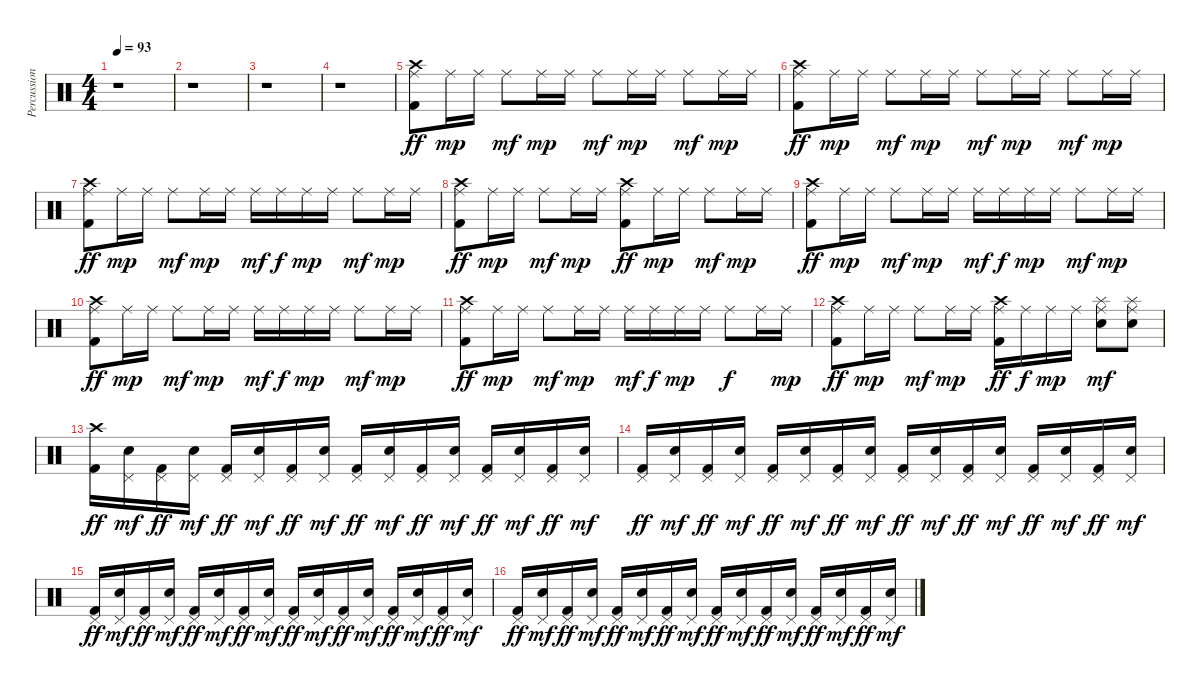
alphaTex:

\track ("Percussion" "Percussion") {instrument percussion}
\staff {score}
\articulation defaults
\ts (4 4)
\tempo 93
\clef neutral
\ks c
r.1{dy ff} |
r.1 |
r.1 |
r.1 |
\section ("" "")
("Crash high (hit)" "Ride (middle)" "Kick (hit) 2").8 "Ride (middle)".16{dy mp} "Ride (middle)".16 "Ride (middle)".8{dy mf} "Ride (middle)".16{dy mp} "Ride (middle)".16 "Ride (middle)".8{dy mf} "Ride (middle)".16{dy mp} "Ride (middle)".16 "Ride (middle)".8{dy mf} "Ride (middle)".16{dy mp} "Ride (middle)".16 |
("Crash high (hit)" "Ride (middle)" "Kick (hit) 2").8{dy ff} "Ride (middle)".16{dy mp} "Ride (middle)".16 "Ride (middle)".8{dy mf} "Ride (middle)".16{dy mp} "Ride (middle)".16 "Ride (middle)".8{dy mf} "Ride (middle)".16{dy mp} "Ride (middle)".16 "Ride (middle)".8{dy mf} "Ride (middle)".16{dy mp} "Ride (middle)".16 |
("Crash high (hit)" "Ride (middle)" "Kick (hit) 2").8{dy ff} "Ride (middle)".16{dy mp} "Ride (middle)".16 "Ride (middle)".8{dy mf} "Ride (middle)".16{dy mp} "Ride (middle)".16 "Ride (middle)".16{dy mf} "Ride (middle)".16{dy f} "Ride (middle)".16{dy mp} "Ride (middle)".16 "Ride (middle)".8{dy mf} "Ride (middle)".16{dy mp} "Ride (middle)".16 |
("Crash high (hit)" "Ride (middle)" "Kick (hit) 2").8{dy ff} "Ride (middle)".16{dy mp} "Ride (middle)".16 "Ride (middle)".8{dy mf} "Ride (middle)".16{dy mp} "Ride (middle)".16 ("Crash high (hit)" "Ride (middle)" "Kick (hit) 2").8{dy ff} "Ride (middle)".16{dy mp} "Ride (middle)".16 "Ride (middle)".8{dy mf} "Ride (middle)".16{dy mp} "Ride (middle)".16 |
("Crash high (hit)" "Ride (middle)" "Kick (hit) 2").8{dy ff} "Ride (middle)".16{dy mp} "Ride (middle)".16 "Ride (middle)".8{dy mf} "Ride (middle)".16{dy mp} "Ride (middle)".16 "Ride (middle)".16{dy mf} "Ride (middle)".16{dy f} "Ride (middle)".16{dy mp} "Ride (middle)".16 "Ride (middle)".8{dy mf} "Ride (middle)".16{dy mp} "Ride (middle)".16 |
("Crash high (hit)" "Ride (middle)" "Kick (hit) 2").8{dy ff} "Ride (middle)".16{dy mp} "Ride (middle)".16 "Ride (middle)".8{dy mf} "Ride (middle)".16{dy mp} "Ride (middle)".16 "Ride (middle)".16{dy mf} "Ride (middle)".16{dy f} "Ride (middle)".16{dy mp} "Ride (middle)".16 "Ride (middle)".8{dy mf} "Ride (middle)".16{dy mp} "Ride (middle)".16 |
("Crash high (hit)" "Ride (middle)" "Kick (hit) 2").8{dy ff} "Ride (middle)".16{dy mp} "Ride (middle)".16 "Ride (middle)".8{dy mf} "Ride (middle)".16{dy mp} "Ride (middle)".16 "Ride (middle)".16{dy mf} "Ride (middle)".16{dy f} "Ride (middle)".16{dy mp} "Ride (middle)".16 "Ride (middle)".8{dy f} "Ride (middle)".16 "Ride (middle)".16{dy mp} |
("Crash high (hit)" "Ride (middle)" "Kick (hit) 2").8{dy ff} "Ride (middle)".16{dy mp} "Ride (middle)".16 "Ride (middle)".8{dy mf} "Ride (middle)".16{dy mp} "Ride (middle)".16 ("Crash high (hit)" "Ride (middle)" "Kick (hit) 2").16{dy ff} "Ride (middle)".16{dy f} "Ride (middle)".16{dy mp} "Ride (middle)".16 ("Splash (hit)" "Ride (middle)" "Electric Snare (hit)").8{dy mf} ("Splash (hit)" "Ride (middle)" "Electric Snare (hit)").8 |
\section ("" "")
("Crash high (hit)" "Kick (hit) 2").16{dy ff} ("Pedal Hi-Hat (hit)" "Electric Snare (hit)").16{dy mf} ("Pedal Hi-Hat (hit)" "Kick (hit) 2").16{dy ff} ("Pedal Hi-Hat (hit)" "Electric Snare (hit)").16{dy mf} ("Pedal Hi-Hat (hit)" "Kick (hit) 2").16{dy ff} ("Pedal Hi-Hat (hit)" "Electric Snare (hit)").16{dy mf} ("Pedal Hi-Hat (hit)" "Kick (hit) 2").16{dy ff} ("Pedal Hi-Hat (hit)" "Electric Snare (hit)").16{dy mf} ("Pedal Hi-Hat (hit)" "Kick (hit) 2").16{dy ff} ("Pedal Hi-Hat (hit)" "Electric Snare (hit)").16{dy mf} ("Pedal Hi-Hat (hit)" "Kick (hit) 2").16{dy ff} ("Pedal Hi-Hat (hit)" "Electric Snare (hit)").16{dy mf} ("Pedal Hi-Hat (hit)" "Kick (hit) 2").16{dy ff} ("Pedal Hi-Hat (hit)" "Electric Snare (hit)").16{dy mf} ("Pedal Hi-Hat (hit)" "Kick (hit) 2").16{dy ff} ("Pedal Hi-Hat (hit)" "Electric Snare (hit)").16{dy mf} |
("Pedal Hi-Hat (hit)" "Kick (hit) 2").16{dy ff} ("Pedal Hi-Hat (hit)" "Electric Snare (hit)").16{dy mf} ("Pedal Hi-Hat (hit)" "Kick (hit) 2").16{dy ff} ("Pedal Hi-Hat (hit)" "Electric Snare (hit)").16{dy mf} ("Pedal Hi-Hat (hit)" "Kick (hit) 2").16{dy ff} ("Pedal Hi-Hat (hit)" "Electric Snare (hit)").16{dy mf} ("Pedal Hi-Hat (hit)" "Kick (hit) 2").16{dy ff} ("Pedal Hi-Hat (hit)" "Electric Snare (hit)").16{dy mf} ("Pedal Hi-Hat (hit)" "Kick (hit) 2").16{dy ff} ("Pedal Hi-Hat (hit)" "Electric Snare (hit)").16{dy mf} ("Pedal Hi-Hat (hit)" "Kick (hit) 2").16{dy ff} ("Pedal Hi-Hat (hit)" "Electric Snare (hit)").16{dy mf} ("Pedal Hi-Hat (hit)" "Kick (hit) 2").16{dy ff} ("Pedal Hi-Hat (hit)" "Electric Snare (hit)").16{dy mf} ("Pedal Hi-Hat (hit)" "Kick (hit) 2").16{dy ff} ("Pedal Hi-Hat (hit)" "Electric Snare (hit)").16{dy mf} |
("Pedal Hi-Hat (hit)" "Kick (hit) 2").16{dy ff} ("Pedal Hi-Hat (hit)" "Electric Snare (hit)").16{dy mf} ("Pedal Hi-Hat (hit)" "Kick (hit) 2").16{dy ff} ("Pedal Hi-Hat (hit)" "Electric Snare (hit)").16{dy mf} ("Pedal Hi-Hat (hit)" "Kick (hit) 2").16{dy ff} ("Pedal Hi-Hat (hit)" "Electric Snare (hit)").16{dy mf} ("Pedal Hi-Hat (hit)" "Kick (hit) 2").16{dy ff} ("Pedal Hi-Hat (hit)" "Electric Snare (hit)").16{dy mf} ("Pedal Hi-Hat (hit)" "Kick (hit) 2").16{dy ff} ("Pedal Hi-Hat (hit)" "Electric Snare (hit)").16{dy mf} ("Pedal Hi-Hat (hit)" "Kick (hit) 2").16{dy ff} ("Pedal Hi-Hat (hit)" "Electric Snare (hit)").16{dy mf} ("Pedal Hi-Hat (hit)" "Kick (hit) 2").16{dy ff} ("Pedal Hi-Hat (hit)" "Electric Snare (hit)").16{dy mf} ("Pedal Hi-Hat (hit)" "Kick (hit) 2").16{dy ff} ("Pedal Hi-Hat (hit)" "Electric Snare (hit)").16{dy mf} |
("Pedal Hi-Hat (hit)" "Kick (hit) 2").16{dy ff} ("Pedal Hi-Hat (hit)" "Electric Snare (hit)").16{dy mf} ("Pedal Hi-Hat (hit)" "Kick (hit) 2").16{dy ff} ("Pedal Hi-Hat (hit)" "Electric Snare (hit)").16{dy mf} ("Pedal Hi-Hat (hit)" "Kick (hit) 2").16{dy ff} ("Pedal Hi-Hat (hit)" "Electric Snare (hit)").16{dy mf} ("Pedal Hi-Hat (hit)" "Kick (hit) 2").16{dy ff} ("Pedal Hi-Hat (hit)" "Electric Snare (hit)").16{dy mf} ("Pedal Hi-Hat (hit)" "Kick (hit) 2").16{dy ff} ("Pedal Hi-Hat (hit)" "Electric Snare (hit)").16{dy mf} ("Pedal Hi-Hat (hit)" "Kick (hit) 2").16{dy ff} ("Pedal Hi-Hat (hit)" "Electric Snare (hit)").16{dy mf} ("Pedal Hi-Hat (hit)" "Kick (hit) 2").16{dy ff} ("Pedal Hi-Hat (hit)" "Electric Snare (hit)").16{dy mf} ("Pedal Hi-Hat (hit)" "Kick (hit) 2").16{dy ff} ("Pedal Hi-Hat (hit)" "Electric Snare (hit)").16{dy mf}
